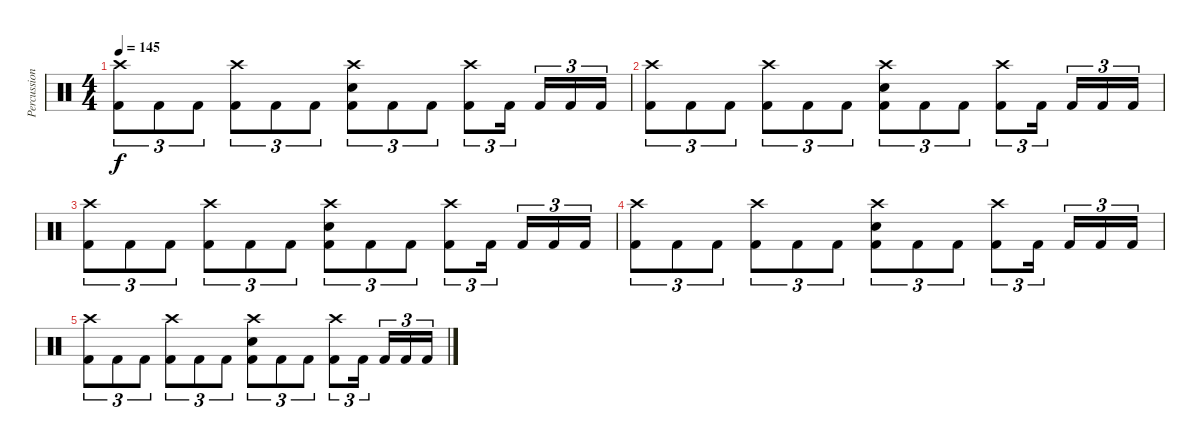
\track ("Percussion" "Percussion") {instrument percussion}
\staff {score}
\articulation defaults
\ts (4 4)
\tempo 145
\clef neutral
\ks c
("Crash high (hit)" "Kick (hit) 2").8{tu (3 2) dy f} "Kick (hit) 2".8{tu (3 2)} "Kick (hit) 2".8{tu (3 2)} ("Crash high (hit)" "Kick (hit) 2").8{tu (3 2)} "Kick (hit) 2".8{tu (3 2)} "Kick (hit) 2".8{tu (3 2)} ("Crash high (hit)" "Electric Snare (hit)" "Kick (hit) 2").8{tu (3 2)} "Kick (hit) 2".8{tu (3 2)} "Kick (hit) 2".8{tu (3 2)} ("Crash high (hit)" "Kick (hit) 2").8{tu (3 2)} "Kick (hit) 2".16{tu (3 2) beam splitsecondary} "Kick (hit) 2".16{tu (3 2)} "Kick (hit) 2".16{tu (3 2)} "Kick (hit) 2".16{tu (3 2)} |
("Crash high (hit)" "Kick (hit) 2").8{tu (3 2) volume 0} "Kick (hit) 2".8{tu (3 2)} "Kick (hit) 2".8{tu (3 2)} ("Crash high (hit)" "Kick (hit) 2").8{tu (3 2)} "Kick (hit) 2".8{tu (3 2)} "Kick (hit) 2".8{tu (3 2)} ("Crash high (hit)" "Electric Snare (hit)" "Kick (hit) 2").8{tu (3 2)} "Kick (hit) 2".8{tu (3 2)} "Kick (hit) 2".8{tu (3 2)} ("Crash high (hit)" "Kick (hit) 2").8{tu (3 2)} "Kick (hit) 2".16{tu (3 2) beam splitsecondary} "Kick (hit) 2".16{tu (3 2)} "Kick (hit) 2".16{tu (3 2)} "Kick (hit) 2".16{tu (3 2)} |
("Crash high (hit)" "Kick (hit) 2").8{tu (3 2)} "Kick (hit) 2".8{tu (3 2)} "Kick (hit) 2".8{tu (3 2)} ("Crash high (hit)" "Kick (hit) 2").8{tu (3 2)} "Kick (hit) 2".8{tu (3 2)} "Kick (hit) 2".8{tu (3 2)} ("Crash high (hit)" "Electric Snare (hit)" "Kick (hit) 2").8{tu (3 2)} "Kick (hit) 2".8{tu (3 2)} "Kick (hit) 2".8{tu (3 2)} ("Crash high (hit)" "Kick (hit) 2").8{tu (3 2)} "Kick (hit) 2".16{tu (3 2) beam splitsecondary} "Kick (hit) 2".16{tu (3 2)} "Kick (hit) 2".16{tu (3 2)} "Kick (hit) 2".16{tu (3 2)} |
("Crash high (hit)" "Kick (hit) 2").8{tu (3 2)} "Kick (hit) 2".8{tu (3 2)} "Kick (hit) 2".8{tu (3 2)} ("Crash high (hit)" "Kick (hit) 2").8{tu (3 2)} "Kick (hit) 2".8{tu (3 2)} "Kick (hit) 2".8{tu (3 2)} ("Crash high (hit)" "Electric Snare (hit)" "Kick (hit) 2").8{tu (3 2)} "Kick (hit) 2".8{tu (3 2)} "Kick (hit) 2".8{tu (3 2)} ("Crash high (hit)" "Kick (hit) 2").8{tu (3 2)} "Kick (hit) 2".16{tu (3 2) beam splitsecondary} "Kick (hit) 2".16{tu (3 2)} "Kick (hit) 2".16{tu (3 2)} "Kick (hit) 2".16{tu (3 2)} |
("Crash high (hit)" "Kick (hit) 2").8{tu (3 2)} "Kick (hit) 2".8{tu (3 2)} "Kick (hit) 2".8{tu (3 2)} ("Crash high (hit)" "Kick (hit) 2").8{tu (3 2)} "Kick (hit) 2".8{tu (3 2)} "Kick (hit) 2".8{tu (3 2)} ("Crash high (hit)" "Electric Snare (hit)" "Kick (hit) 2").8{tu (3 2)} "Kick (hit) 2".8{tu (3 2)} "Kick (hit) 2".8{tu (3 2)} ("Crash high (hit)" "Kick (hit) 2").8{tu (3 2)} "Kick (hit) 2".16{tu (3 2) beam splitsecondary} "Kick (hit) 2".16{tu (3 2)} "Kick (hit) 2".16{tu (3 2)} "Kick (hit) 2".16{tu (3 2)}
